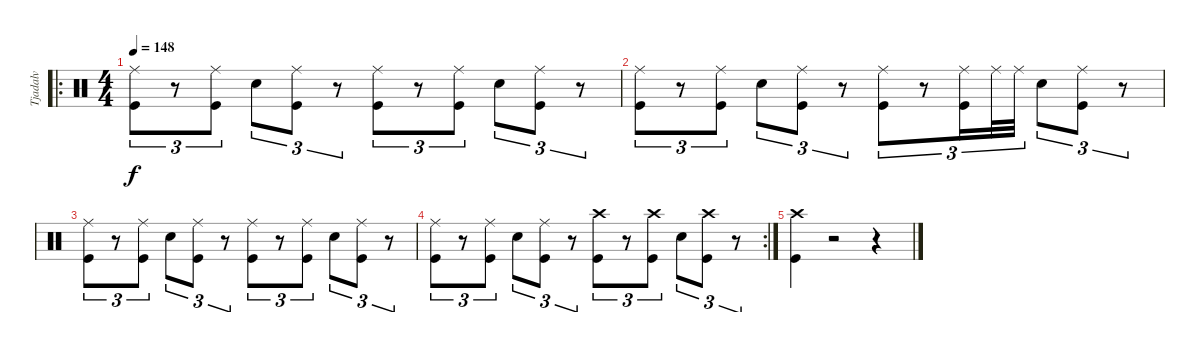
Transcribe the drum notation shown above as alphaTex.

\track ("Tjadalv    ( Drum )" "Tjadalv   ") {instrument percussion}
\staff {score}
\articulation defaults
\ro
\ts (4 4)
\tempo 148
\clef neutral
\ks c
("Ride (middle)" "Kick (hit)").8{tu (3 2) dy f} r.8{tu (3 2)} ("Ride (middle)" "Kick (hit)").8{tu (3 2)} "Electric Snare (hit)".8{tu (3 2)} ("Ride (middle)" "Kick (hit)").8{tu (3 2)} r.8{tu (3 2)} ("Ride (middle)" "Kick (hit)").8{tu (3 2)} r.8{tu (3 2)} ("Ride (middle)" "Kick (hit)").8{tu (3 2)} "Electric Snare (hit)".8{tu (3 2)} ("Ride (middle)" "Kick (hit)").8{tu (3 2)} r.8{tu (3 2)} |
("Ride (middle)" "Kick (hit)").8{tu (3 2)} r.8{tu (3 2)} ("Ride (middle)" "Kick (hit)").8{tu (3 2)} "Electric Snare (hit)".8{tu (3 2)} ("Ride (middle)" "Kick (hit)").8{tu (3 2)} r.8{tu (3 2)} ("Ride (middle)" "Kick (hit)").8{tu (3 2)} r.8{tu (3 2)} ("Ride (middle)" "Kick (hit)").16{tu (3 2)} "Ride (middle)".32{tu (3 2)} "Ride (middle)".32{tu (3 2)} "Electric Snare (hit)".8{tu (3 2)} ("Ride (middle)" "Kick (hit)").8{tu (3 2)} r.8{tu (3 2)} |
("Ride (middle)" "Kick (hit)").8{tu (3 2)} r.8{tu (3 2)} ("Ride (middle)" "Kick (hit)").8{tu (3 2)} "Electric Snare (hit)".8{tu (3 2)} ("Ride (middle)" "Kick (hit)").8{tu (3 2)} r.8{tu (3 2)} ("Ride (middle)" "Kick (hit)").8{tu (3 2)} r.8{tu (3 2)} ("Ride (middle)" "Kick (hit)").8{tu (3 2)} "Electric Snare (hit)".8{tu (3 2)} ("Ride (middle)" "Kick (hit)").8{tu (3 2)} r.8{tu (3 2)} |
\rc 2
("Ride (middle)" "Kick (hit)").8{tu (3 2)} r.8{tu (3 2)} ("Ride (middle)" "Kick (hit)").8{tu (3 2)} "Electric Snare (hit)".8{tu (3 2)} ("Ride (middle)" "Kick (hit)").8{tu (3 2)} r.8{tu (3 2)} ("Crash high (hit)" "Kick (hit)").8{tu (3 2)} r.8{tu (3 2)} ("Crash high (hit)" "Kick (hit)").8{tu (3 2)} "Electric Snare (hit)".8{tu (3 2)} ("Crash high (hit)" "Kick (hit)").8{tu (3 2)} r.8{tu (3 2)} |
("Crash high (hit)" "Kick (hit)").4 r.2 r.4
